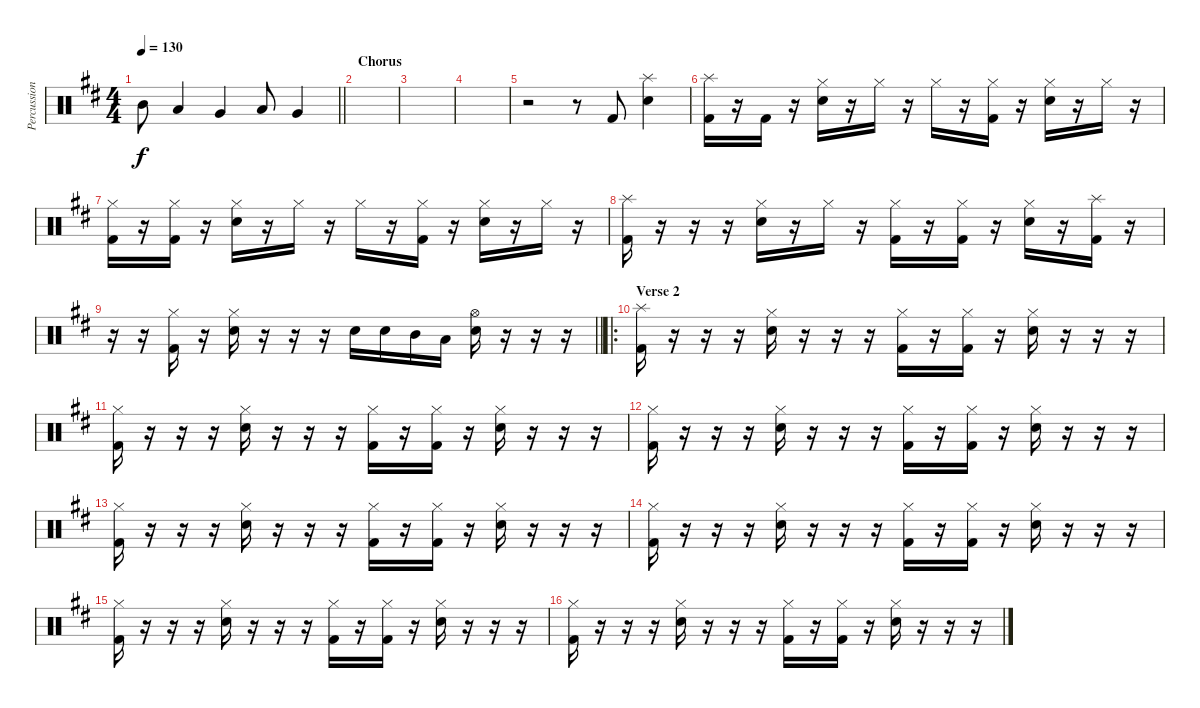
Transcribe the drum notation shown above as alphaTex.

\track ("Percussioni" "Percussion") {instrument percussion}
\staff {score}
\articulation defaults
\ts (4 4)
\tempo 130
\clef neutral
\barLineRight lightlight
\ks d "Mid Tom (hit)".8{dy f} "Low Tom (hit)".4 "Very Low Tom (hit)".4 "Low Tom (hit)".8 "Very Low Tom (hit)".4
|
\section ("" "Chorus")
|
|
|
r.2 r.8 "Kick (hit) 2".8 ("Snare (hit) 2" "Splash (hit)").4 |
("Kick (hit) 2" "Splash (hit)").16 r.16 "Kick (hit) 2".16 r.16 ("Snare (hit) 2" "Hi-Hat (closed)").16 r.16 "Hi-Hat (closed)".16 r.16 "Hi-Hat (closed)".16 r.16 ("Kick (hit) 2" "Hi-Hat (closed)").16 r.16 ("Snare (hit) 2" "Hi-Hat (closed)").16 r.16 "Hi-Hat (closed)".16 r.16 |
("Kick (hit) 2" "Hi-Hat (closed)").16 r.16 ("Kick (hit) 2" "Hi-Hat (closed)").16 r.16 ("Snare (hit) 2" "Hi-Hat (closed)").16 r.16 "Hi-Hat (closed)".16 r.16 "Hi-Hat (closed)".16 r.16 ("Kick (hit) 2" "Hi-Hat (closed)").16 r.16 ("Snare (hit) 2" "Hi-Hat (closed)").16 r.16 "Hi-Hat (closed)".16 r.16 |
("Kick (hit) 2" "Splash (hit)").16 r.16 r.16 r.16 ("Snare (hit) 2" "Hi-Hat (closed)").16 r.16 "Hi-Hat (closed)".16 r.16 ("Kick (hit) 2" "Hi-Hat (closed)").16 r.16 ("Kick (hit) 2" "Hi-Hat (closed)").16 r.16 ("Snare (hit) 2" "Hi-Hat (closed)").16 r.16 ("Kick (hit) 2" "Splash (hit)").16 r.16 |
\barLineRight lightlight
r.16 r.16 ("Kick (hit) 2" "Hi-Hat (closed)").16 r.16 ("Snare (hit) 2" "Hi-Hat (closed)").16 r.16 r.16 r.16 "Snare (hit) 2".16 "Snare (hit) 2".16 "Mid Tom (hit)".16 "Low Tom (hit)".16 ("Snare (hit) 2" "Hi-Hat (open)").16 r.16 r.16 r.16 |
\ro
\section ("" "Verse 2")
("Kick (hit) 2" "Splash (hit)").16 r.16 r.16 r.16 ("Snare (hit) 2" "Hi-Hat (closed)").16 r.16 r.16 r.16 ("Kick (hit) 2" "Hi-Hat (closed)").16 r.16 ("Kick (hit) 2" "Hi-Hat (closed)").16 r.16 ("Snare (hit) 2" "Hi-Hat (closed)").16 r.16 r.16 r.16 |
("Kick (hit) 2" "Hi-Hat (closed)").16 r.16 r.16 r.16 ("Snare (hit) 2" "Hi-Hat (closed)").16 r.16 r.16 r.16 ("Kick (hit) 2" "Hi-Hat (closed)").16 r.16 ("Kick (hit) 2" "Hi-Hat (closed)").16 r.16 ("Snare (hit) 2" "Hi-Hat (closed)").16 r.16 r.16 r.16 |
("Kick (hit) 2" "Hi-Hat (closed)").16 r.16 r.16 r.16 ("Snare (hit) 2" "Hi-Hat (closed)").16 r.16 r.16 r.16 ("Kick (hit) 2" "Hi-Hat (closed)").16 r.16 ("Kick (hit) 2" "Hi-Hat (closed)").16 r.16 ("Snare (hit) 2" "Hi-Hat (closed)").16 r.16 r.16 r.16 |
("Kick (hit) 2" "Hi-Hat (closed)").16 r.16 r.16 r.16 ("Snare (hit) 2" "Hi-Hat (closed)").16 r.16 r.16 r.16 ("Kick (hit) 2" "Hi-Hat (closed)").16 r.16 ("Kick (hit) 2" "Hi-Hat (closed)").16 r.16 ("Snare (hit) 2" "Hi-Hat (closed)").16 r.16 r.16 r.16 |
("Kick (hit) 2" "Hi-Hat (closed)").16 r.16 r.16 r.16 ("Snare (hit) 2" "Hi-Hat (closed)").16 r.16 r.16 r.16 ("Kick (hit) 2" "Hi-Hat (closed)").16 r.16 ("Kick (hit) 2" "Hi-Hat (closed)").16 r.16 ("Snare (hit) 2" "Hi-Hat (closed)").16 r.16 r.16 r.16 |
("Kick (hit) 2" "Hi-Hat (closed)").16 r.16 r.16 r.16 ("Snare (hit) 2" "Hi-Hat (closed)").16 r.16 r.16 r.16 ("Kick (hit) 2" "Hi-Hat (closed)").16 r.16 ("Kick (hit) 2" "Hi-Hat (closed)").16 r.16 ("Snare (hit) 2" "Hi-Hat (closed)").16 r.16 r.16 r.16 |
("Kick (hit) 2" "Hi-Hat (closed)").16 r.16 r.16 r.16 ("Snare (hit) 2" "Hi-Hat (closed)").16 r.16 r.16 r.16 ("Kick (hit) 2" "Hi-Hat (closed)").16 r.16 ("Kick (hit) 2" "Hi-Hat (closed)").16 r.16 ("Snare (hit) 2" "Hi-Hat (closed)").16 r.16 r.16 r.16
